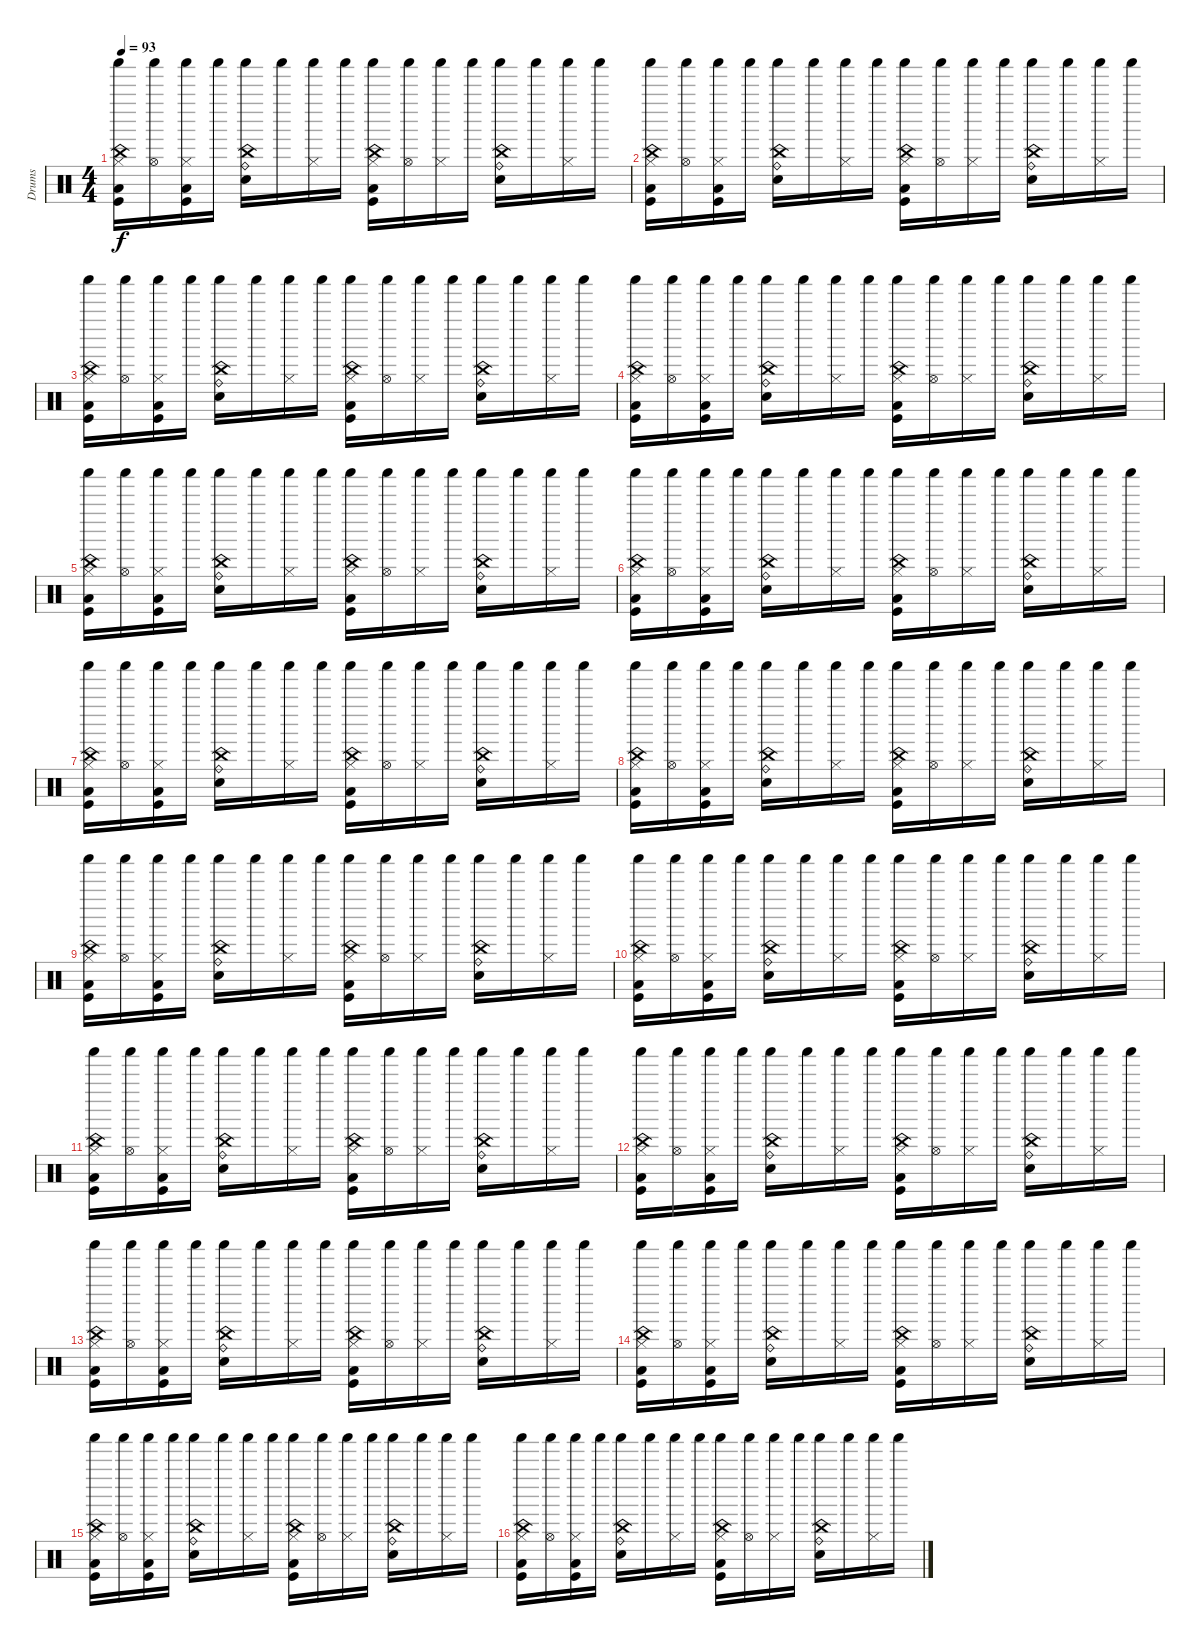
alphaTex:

\track ("Drums" "Drums") {instrument percussion}
\staff {score}
\articulation defaults
\ts (4 4)
\tempo 93
\clef neutral
\ks c
("China (hit)" "Shaker (hit)" "Hi-Hat (closed)" "Kick (hit)" "Low Floor Tom (hit)").16{dy f} ("Shaker (hit)" "Hi-Hat (open)").16 ("Shaker (hit)" "Hi-Hat (closed)" "Kick (hit)" "Low Floor Tom (hit)").16 "Shaker (hit)".16 ("China (hit)" "Shaker (hit)" "Ride (bell)" "Electric Snare (hit)").16 "Shaker (hit)".16 ("Shaker (hit)" "Hi-Hat (closed)").16 "Shaker (hit)".16 ("China (hit)" "Shaker (hit)" "Hi-Hat (closed)" "Kick (hit)" "Low Floor Tom (hit)").16 ("Shaker (hit)" "Hi-Hat (open)").16 ("Shaker (hit)" "Hi-Hat (closed)").16 "Shaker (hit)".16 ("China (hit)" "Shaker (hit)" "Ride (bell)" "Electric Snare (hit)").16 "Shaker (hit)".16 ("Shaker (hit)" "Hi-Hat (closed)").16 "Shaker (hit)".16 |
("China (hit)" "Shaker (hit)" "Hi-Hat (closed)" "Kick (hit)" "Low Floor Tom (hit)").16 ("Shaker (hit)" "Hi-Hat (open)").16 ("Shaker (hit)" "Hi-Hat (closed)" "Kick (hit)" "Low Floor Tom (hit)").16 "Shaker (hit)".16 ("China (hit)" "Shaker (hit)" "Ride (bell)" "Electric Snare (hit)").16 "Shaker (hit)".16 ("Shaker (hit)" "Hi-Hat (closed)").16 "Shaker (hit)".16 ("China (hit)" "Shaker (hit)" "Hi-Hat (closed)" "Kick (hit)" "Low Floor Tom (hit)").16 ("Shaker (hit)" "Hi-Hat (open)").16 ("Shaker (hit)" "Hi-Hat (closed)").16 "Shaker (hit)".16 ("China (hit)" "Shaker (hit)" "Ride (bell)" "Electric Snare (hit)").16 "Shaker (hit)".16 ("Shaker (hit)" "Hi-Hat (closed)").16 "Shaker (hit)".16 |
("China (hit)" "Shaker (hit)" "Hi-Hat (closed)" "Kick (hit)" "Low Floor Tom (hit)").16 ("Shaker (hit)" "Hi-Hat (open)").16 ("Shaker (hit)" "Hi-Hat (closed)" "Kick (hit)" "Low Floor Tom (hit)").16 "Shaker (hit)".16 ("China (hit)" "Shaker (hit)" "Ride (bell)" "Electric Snare (hit)").16 "Shaker (hit)".16 ("Shaker (hit)" "Hi-Hat (closed)").16 "Shaker (hit)".16 ("China (hit)" "Shaker (hit)" "Hi-Hat (closed)" "Kick (hit)" "Low Floor Tom (hit)").16 ("Shaker (hit)" "Hi-Hat (open)").16 ("Shaker (hit)" "Hi-Hat (closed)").16 "Shaker (hit)".16 ("China (hit)" "Shaker (hit)" "Ride (bell)" "Electric Snare (hit)").16 "Shaker (hit)".16 ("Shaker (hit)" "Hi-Hat (closed)").16 "Shaker (hit)".16 |
("China (hit)" "Shaker (hit)" "Hi-Hat (closed)" "Kick (hit)" "Low Floor Tom (hit)").16 ("Shaker (hit)" "Hi-Hat (open)").16 ("Shaker (hit)" "Hi-Hat (closed)" "Kick (hit)" "Low Floor Tom (hit)").16 "Shaker (hit)".16 ("China (hit)" "Shaker (hit)" "Ride (bell)" "Electric Snare (hit)").16 "Shaker (hit)".16 ("Shaker (hit)" "Hi-Hat (closed)").16 "Shaker (hit)".16 ("China (hit)" "Shaker (hit)" "Hi-Hat (closed)" "Kick (hit)" "Low Floor Tom (hit)").16 ("Shaker (hit)" "Hi-Hat (open)").16 ("Shaker (hit)" "Hi-Hat (closed)").16 "Shaker (hit)".16 ("China (hit)" "Shaker (hit)" "Ride (bell)" "Electric Snare (hit)").16 "Shaker (hit)".16 ("Shaker (hit)" "Hi-Hat (closed)").16 "Shaker (hit)".16 |
("China (hit)" "Shaker (hit)" "Hi-Hat (closed)" "Kick (hit)" "Low Floor Tom (hit)").16 ("Shaker (hit)" "Hi-Hat (open)").16 ("Shaker (hit)" "Hi-Hat (closed)" "Kick (hit)" "Low Floor Tom (hit)").16 "Shaker (hit)".16 ("China (hit)" "Shaker (hit)" "Ride (bell)" "Electric Snare (hit)").16 "Shaker (hit)".16 ("Shaker (hit)" "Hi-Hat (closed)").16 "Shaker (hit)".16 ("China (hit)" "Shaker (hit)" "Hi-Hat (closed)" "Kick (hit)" "Low Floor Tom (hit)").16 ("Shaker (hit)" "Hi-Hat (open)").16 ("Shaker (hit)" "Hi-Hat (closed)").16 "Shaker (hit)".16 ("China (hit)" "Shaker (hit)" "Ride (bell)" "Electric Snare (hit)").16 "Shaker (hit)".16 ("Shaker (hit)" "Hi-Hat (closed)").16 "Shaker (hit)".16 |
("China (hit)" "Shaker (hit)" "Hi-Hat (closed)" "Kick (hit)" "Low Floor Tom (hit)").16 ("Shaker (hit)" "Hi-Hat (open)").16 ("Shaker (hit)" "Hi-Hat (closed)" "Kick (hit)" "Low Floor Tom (hit)").16 "Shaker (hit)".16 ("China (hit)" "Shaker (hit)" "Ride (bell)" "Electric Snare (hit)").16 "Shaker (hit)".16 ("Shaker (hit)" "Hi-Hat (closed)").16 "Shaker (hit)".16 ("China (hit)" "Shaker (hit)" "Hi-Hat (closed)" "Kick (hit)" "Low Floor Tom (hit)").16 ("Shaker (hit)" "Hi-Hat (open)").16 ("Shaker (hit)" "Hi-Hat (closed)").16 "Shaker (hit)".16 ("China (hit)" "Shaker (hit)" "Ride (bell)" "Electric Snare (hit)").16 "Shaker (hit)".16 ("Shaker (hit)" "Hi-Hat (closed)").16 "Shaker (hit)".16 |
("China (hit)" "Shaker (hit)" "Hi-Hat (closed)" "Kick (hit)" "Low Floor Tom (hit)").16 ("Shaker (hit)" "Hi-Hat (open)").16 ("Shaker (hit)" "Hi-Hat (closed)" "Kick (hit)" "Low Floor Tom (hit)").16 "Shaker (hit)".16 ("China (hit)" "Shaker (hit)" "Ride (bell)" "Electric Snare (hit)").16 "Shaker (hit)".16 ("Shaker (hit)" "Hi-Hat (closed)").16 "Shaker (hit)".16 ("China (hit)" "Shaker (hit)" "Hi-Hat (closed)" "Kick (hit)" "Low Floor Tom (hit)").16 ("Shaker (hit)" "Hi-Hat (open)").16 ("Shaker (hit)" "Hi-Hat (closed)").16 "Shaker (hit)".16 ("China (hit)" "Shaker (hit)" "Ride (bell)" "Electric Snare (hit)").16 "Shaker (hit)".16 ("Shaker (hit)" "Hi-Hat (closed)").16 "Shaker (hit)".16 |
("China (hit)" "Shaker (hit)" "Hi-Hat (closed)" "Kick (hit)" "Low Floor Tom (hit)").16 ("Shaker (hit)" "Hi-Hat (open)").16 ("Shaker (hit)" "Hi-Hat (closed)" "Kick (hit)" "Low Floor Tom (hit)").16 "Shaker (hit)".16 ("China (hit)" "Shaker (hit)" "Ride (bell)" "Electric Snare (hit)").16 "Shaker (hit)".16 ("Shaker (hit)" "Hi-Hat (closed)").16 "Shaker (hit)".16 ("China (hit)" "Shaker (hit)" "Hi-Hat (closed)" "Kick (hit)" "Low Floor Tom (hit)").16 ("Shaker (hit)" "Hi-Hat (open)").16 ("Shaker (hit)" "Hi-Hat (closed)").16 "Shaker (hit)".16 ("China (hit)" "Shaker (hit)" "Ride (bell)" "Electric Snare (hit)").16 "Shaker (hit)".16 ("Shaker (hit)" "Hi-Hat (closed)").16 "Shaker (hit)".16 |
("China (hit)" "Shaker (hit)" "Hi-Hat (closed)" "Kick (hit)" "Low Floor Tom (hit)").16 ("Shaker (hit)" "Hi-Hat (open)").16 ("Shaker (hit)" "Hi-Hat (closed)" "Kick (hit)" "Low Floor Tom (hit)").16 "Shaker (hit)".16 ("China (hit)" "Shaker (hit)" "Ride (bell)" "Electric Snare (hit)").16 "Shaker (hit)".16 ("Shaker (hit)" "Hi-Hat (closed)").16 "Shaker (hit)".16 ("China (hit)" "Shaker (hit)" "Hi-Hat (closed)" "Kick (hit)" "Low Floor Tom (hit)").16 ("Shaker (hit)" "Hi-Hat (open)").16 ("Shaker (hit)" "Hi-Hat (closed)").16 "Shaker (hit)".16 ("China (hit)" "Shaker (hit)" "Ride (bell)" "Electric Snare (hit)").16 "Shaker (hit)".16 ("Shaker (hit)" "Hi-Hat (closed)").16 "Shaker (hit)".16 |
("China (hit)" "Shaker (hit)" "Hi-Hat (closed)" "Kick (hit)" "Low Floor Tom (hit)").16 ("Shaker (hit)" "Hi-Hat (open)").16 ("Shaker (hit)" "Hi-Hat (closed)" "Kick (hit)" "Low Floor Tom (hit)").16 "Shaker (hit)".16 ("China (hit)" "Shaker (hit)" "Ride (bell)" "Electric Snare (hit)").16 "Shaker (hit)".16 ("Shaker (hit)" "Hi-Hat (closed)").16 "Shaker (hit)".16 ("China (hit)" "Shaker (hit)" "Hi-Hat (closed)" "Kick (hit)" "Low Floor Tom (hit)").16 ("Shaker (hit)" "Hi-Hat (open)").16 ("Shaker (hit)" "Hi-Hat (closed)").16 "Shaker (hit)".16 ("China (hit)" "Shaker (hit)" "Ride (bell)" "Electric Snare (hit)").16 "Shaker (hit)".16 ("Shaker (hit)" "Hi-Hat (closed)").16 "Shaker (hit)".16 |
("China (hit)" "Shaker (hit)" "Hi-Hat (closed)" "Kick (hit)" "Low Floor Tom (hit)").16 ("Shaker (hit)" "Hi-Hat (open)").16 ("Shaker (hit)" "Hi-Hat (closed)" "Kick (hit)" "Low Floor Tom (hit)").16 "Shaker (hit)".16 ("China (hit)" "Shaker (hit)" "Ride (bell)" "Electric Snare (hit)").16 "Shaker (hit)".16 ("Shaker (hit)" "Hi-Hat (closed)").16 "Shaker (hit)".16 ("China (hit)" "Shaker (hit)" "Hi-Hat (closed)" "Kick (hit)" "Low Floor Tom (hit)").16 ("Shaker (hit)" "Hi-Hat (open)").16 ("Shaker (hit)" "Hi-Hat (closed)").16 "Shaker (hit)".16 ("China (hit)" "Shaker (hit)" "Ride (bell)" "Electric Snare (hit)").16 "Shaker (hit)".16 ("Shaker (hit)" "Hi-Hat (closed)").16 "Shaker (hit)".16 |
("China (hit)" "Shaker (hit)" "Hi-Hat (closed)" "Kick (hit)" "Low Floor Tom (hit)").16 ("Shaker (hit)" "Hi-Hat (open)").16 ("Shaker (hit)" "Hi-Hat (closed)" "Kick (hit)" "Low Floor Tom (hit)").16 "Shaker (hit)".16 ("China (hit)" "Shaker (hit)" "Ride (bell)" "Electric Snare (hit)").16 "Shaker (hit)".16 ("Shaker (hit)" "Hi-Hat (closed)").16 "Shaker (hit)".16 ("China (hit)" "Shaker (hit)" "Hi-Hat (closed)" "Kick (hit)" "Low Floor Tom (hit)").16 ("Shaker (hit)" "Hi-Hat (open)").16 ("Shaker (hit)" "Hi-Hat (closed)").16 "Shaker (hit)".16 ("China (hit)" "Shaker (hit)" "Ride (bell)" "Electric Snare (hit)").16 "Shaker (hit)".16 ("Shaker (hit)" "Hi-Hat (closed)").16 "Shaker (hit)".16 |
("China (hit)" "Shaker (hit)" "Hi-Hat (closed)" "Kick (hit)" "Low Floor Tom (hit)").16 ("Shaker (hit)" "Hi-Hat (open)").16 ("Shaker (hit)" "Hi-Hat (closed)" "Kick (hit)" "Low Floor Tom (hit)").16 "Shaker (hit)".16 ("China (hit)" "Shaker (hit)" "Ride (bell)" "Electric Snare (hit)").16 "Shaker (hit)".16 ("Shaker (hit)" "Hi-Hat (closed)").16 "Shaker (hit)".16 ("China (hit)" "Shaker (hit)" "Hi-Hat (closed)" "Kick (hit)" "Low Floor Tom (hit)").16 ("Shaker (hit)" "Hi-Hat (open)").16 ("Shaker (hit)" "Hi-Hat (closed)").16 "Shaker (hit)".16 ("China (hit)" "Shaker (hit)" "Ride (bell)" "Electric Snare (hit)").16 "Shaker (hit)".16 ("Shaker (hit)" "Hi-Hat (closed)").16 "Shaker (hit)".16 |
("China (hit)" "Shaker (hit)" "Hi-Hat (closed)" "Kick (hit)" "Low Floor Tom (hit)").16 ("Shaker (hit)" "Hi-Hat (open)").16 ("Shaker (hit)" "Hi-Hat (closed)" "Kick (hit)" "Low Floor Tom (hit)").16 "Shaker (hit)".16 ("China (hit)" "Shaker (hit)" "Ride (bell)" "Electric Snare (hit)").16 "Shaker (hit)".16 ("Shaker (hit)" "Hi-Hat (closed)").16 "Shaker (hit)".16 ("China (hit)" "Shaker (hit)" "Hi-Hat (closed)" "Kick (hit)" "Low Floor Tom (hit)").16 ("Shaker (hit)" "Hi-Hat (open)").16 ("Shaker (hit)" "Hi-Hat (closed)").16 "Shaker (hit)".16 ("China (hit)" "Shaker (hit)" "Ride (bell)" "Electric Snare (hit)").16 "Shaker (hit)".16 ("Shaker (hit)" "Hi-Hat (closed)").16 "Shaker (hit)".16 |
("China (hit)" "Shaker (hit)" "Hi-Hat (closed)" "Kick (hit)" "Low Floor Tom (hit)").16 ("Shaker (hit)" "Hi-Hat (open)").16 ("Shaker (hit)" "Hi-Hat (closed)" "Kick (hit)" "Low Floor Tom (hit)").16 "Shaker (hit)".16 ("China (hit)" "Shaker (hit)" "Ride (bell)" "Electric Snare (hit)").16 "Shaker (hit)".16 ("Shaker (hit)" "Hi-Hat (closed)").16 "Shaker (hit)".16 ("China (hit)" "Shaker (hit)" "Hi-Hat (closed)" "Kick (hit)" "Low Floor Tom (hit)").16 ("Shaker (hit)" "Hi-Hat (open)").16 ("Shaker (hit)" "Hi-Hat (closed)").16 "Shaker (hit)".16 ("China (hit)" "Shaker (hit)" "Ride (bell)" "Electric Snare (hit)").16 "Shaker (hit)".16 ("Shaker (hit)" "Hi-Hat (closed)").16 "Shaker (hit)".16 |
("China (hit)" "Shaker (hit)" "Hi-Hat (closed)" "Kick (hit)" "Low Floor Tom (hit)").16 ("Shaker (hit)" "Hi-Hat (open)").16 ("Shaker (hit)" "Hi-Hat (closed)" "Kick (hit)" "Low Floor Tom (hit)").16 "Shaker (hit)".16 ("China (hit)" "Shaker (hit)" "Ride (bell)" "Electric Snare (hit)").16 "Shaker (hit)".16 ("Shaker (hit)" "Hi-Hat (closed)").16 "Shaker (hit)".16 ("China (hit)" "Shaker (hit)" "Hi-Hat (closed)" "Kick (hit)" "Low Floor Tom (hit)").16 ("Shaker (hit)" "Hi-Hat (open)").16 ("Shaker (hit)" "Hi-Hat (closed)").16 "Shaker (hit)".16 ("China (hit)" "Shaker (hit)" "Ride (bell)" "Electric Snare (hit)").16 "Shaker (hit)".16 ("Shaker (hit)" "Hi-Hat (closed)").16 "Shaker (hit)".16
